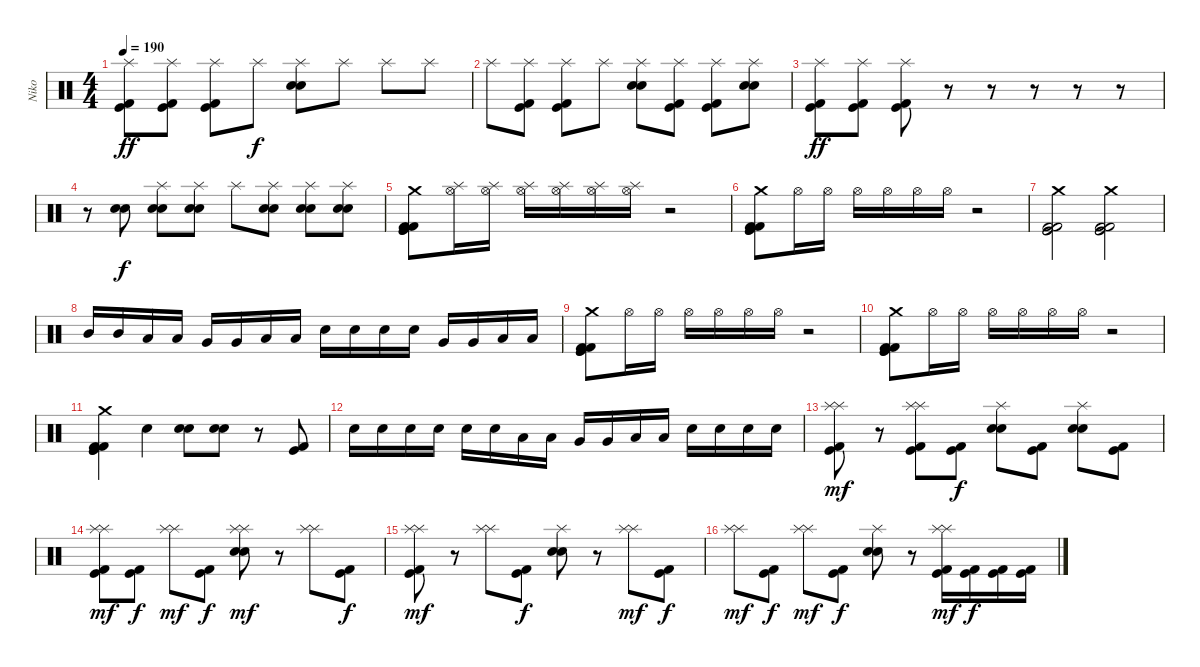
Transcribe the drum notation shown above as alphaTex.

\track ("Niko" "Niko") {instrument percussion}
\staff {score}
\articulation defaults
\ts (4 4)
\tempo 190
\clef neutral
\ks c
("Splash (hit)" "Kick (hit) 2" "Kick (hit)").8{dy ff} ("Splash (hit)" "Kick (hit)" "Kick (hit) 2").8 ("Splash (hit)" "Kick (hit)" "Kick (hit) 2").8 "Splash (hit)".8{dy f} ("Splash (hit)" "Electric Snare (hit)" "Electric Snare (hit)").8 "Splash (hit)".8 "Splash (hit)".8 "Splash (hit)".8 |
"Splash (hit)".8 ("Splash (hit)" "Kick (hit) 2" "Kick (hit)").8 ("Splash (hit)" "Kick (hit)" "Kick (hit) 2").8 "Splash (hit)".8 ("Splash (hit)" "Electric Snare (hit)" "Electric Snare (hit)").8 ("Splash (hit)" "Kick (hit) 2" "Kick (hit)").8 ("Splash (hit)" "Kick (hit) 2" "Kick (hit)").8 ("Splash (hit)" "Electric Snare (hit)" "Electric Snare (hit)").8 |
("Splash (hit)" "Kick (hit) 2" "Kick (hit)").8{dy ff} ("Splash (hit)" "Kick (hit)" "Kick (hit) 2").8 ("Splash (hit)" "Kick (hit)" "Kick (hit) 2").8 r.8 r.8 r.8 r.8 r.8 |
r.8 ("Electric Snare (hit)" "Electric Snare (hit)").8{dy f} ("Splash (hit)" "Electric Snare (hit)" "Electric Snare (hit)").8 ("Splash (hit)" "Electric Snare (hit)" "Electric Snare (hit)").8 "Splash (hit)".8 ("Splash (hit)" "Electric Snare (hit)" "Electric Snare (hit)").8 ("Splash (hit)" "Electric Snare (hit)" "Electric Snare (hit)").8 ("Splash (hit)" "Electric Snare (hit)" "Electric Snare (hit)").8 |
("Crash medium (hit)" "Kick (hit) 2" "Kick (hit)" "Kick (hit) 2" "Kick (hit)").8 ("Splash (hit)" "Hi-Hat (open)").16 ("Splash (hit)" "Hi-Hat (open)").16 ("Splash (hit)" "Hi-Hat (open)").16 ("Splash (hit)" "Hi-Hat (open)").16 ("Splash (hit)" "Hi-Hat (open)").16 ("Splash (hit)" "Hi-Hat (open)").16 r.2 |
("Crash medium (hit)" "Kick (hit) 2" "Kick (hit)" "Kick (hit) 2" "Kick (hit)").8 "Hi-Hat (open)".16 "Hi-Hat (open)".16 "Hi-Hat (open)".16 "Hi-Hat (open)".16 "Hi-Hat (open)".16 "Hi-Hat (open)".16 r.2 |
("Crash medium (hit)" "Kick (hit) 2" "Kick (hit)" "Kick (hit) 2" "Kick (hit)").2 ("Crash medium (hit)" "Kick (hit)" "Kick (hit) 2" "Kick (hit) 2" "Kick (hit)").2 |
"Mid Tom (hit)".16 "Mid Tom (hit)".16 "Low Tom (hit)".16 "Low Tom (hit)".16 "Very Low Tom (hit)".16 "Very Low Tom (hit)".16 "Low Floor Tom (hit)".16 "Low Floor Tom (hit)".16 "Electric Snare (hit)".16 "Electric Snare (hit)".16 "Electric Snare (hit)".16 "Electric Snare (hit)".16 "Very Low Tom (hit)".16 "Very Low Tom (hit)".16 "Low Floor Tom (hit)".16 "Low Floor Tom (hit)".16 |
("Crash medium (hit)" "Kick (hit) 2" "Kick (hit)" "Kick (hit) 2" "Kick (hit)").8 "Hi-Hat (open)".16 "Hi-Hat (open)".16 "Hi-Hat (open)".16 "Hi-Hat (open)".16 "Hi-Hat (open)".16 "Hi-Hat (open)".16 r.2 |
("Crash medium (hit)" "Kick (hit) 2" "Kick (hit)" "Kick (hit) 2" "Kick (hit)").8 "Hi-Hat (open)".16 "Hi-Hat (open)".16 "Hi-Hat (open)".16 "Hi-Hat (open)".16 "Hi-Hat (open)".16 "Hi-Hat (open)".16 r.2 |
("Crash medium (hit)" "Kick (hit) 2" "Kick (hit)" "Kick (hit) 2" "Kick (hit)").4 "Electric Snare (hit)".4 ("Electric Snare (hit)" "Electric Snare (hit)").8 ("Electric Snare (hit)" "Electric Snare (hit)").8 r.8 ("Kick (hit) 2" "Kick (hit)").8 |
"Electric Snare (hit)".16 "Electric Snare (hit)".16 "Electric Snare (hit)".16 "Electric Snare (hit)".16 "Electric Snare (hit)".16 "Electric Snare (hit)".16 "Low Tom (hit)".16 "Low Tom (hit)".16 "Very Low Tom (hit)".16 "Very Low Tom (hit)".16 "Low Floor Tom (hit)".16 "Low Floor Tom (hit)".16 "Electric Snare (hit)".16 "Electric Snare (hit)".16 "Electric Snare (hit)".16 "Electric Snare (hit)".16 |
("Splash (hit)" "Splash (hit)" "Kick (hit) 2" "Kick (hit)").8{dy mf} r.8 ("Splash (hit)" "Splash (hit)" "Kick (hit) 2" "Kick (hit)").8 ("Kick (hit)" "Kick (hit) 2").8{dy f} ("Splash (hit)" "Electric Snare (hit)" "Electric Snare (hit)").8 ("Kick (hit) 2" "Kick (hit)").8 ("Splash (hit)" "Electric Snare (hit)" "Electric Snare (hit)").8 ("Kick (hit) 2" "Kick (hit)").8 |
("Splash (hit)" "Splash (hit)" "Kick (hit) 2" "Kick (hit)").8{dy mf} ("Kick (hit)" "Kick (hit) 2").8{dy f} ("Splash (hit)" "Splash (hit)").8{dy mf} ("Kick (hit) 2" "Kick (hit)").8{dy f} ("Splash (hit)" "Splash (hit)" "Electric Snare (hit)" "Electric Snare (hit)").8{dy mf} r.8 ("Splash (hit)" "Splash (hit)").8 ("Kick (hit) 2" "Kick (hit)").8{dy f} |
("Splash (hit)" "Splash (hit)" "Kick (hit) 2" "Kick (hit)").8{dy mf} r.8 ("Splash (hit)" "Splash (hit)").8 ("Kick (hit) 2" "Kick (hit)").8{dy f} ("Splash (hit)" "Electric Snare (hit)" "Electric Snare (hit)").8 r.8 ("Splash (hit)" "Splash (hit)").8{dy mf} ("Kick (hit) 2" "Kick (hit)").8{dy f} |
("Splash (hit)" "Splash (hit)").8{dy mf} ("Kick (hit) 2" "Kick (hit)").8{dy f} ("Splash (hit)" "Splash (hit)").8{dy mf} ("Kick (hit) 2" "Kick (hit)").8{dy f} ("Splash (hit)" "Electric Snare (hit)" "Electric Snare (hit)").8 r.8 ("Splash (hit)" "Splash (hit)" "Kick (hit) 2" "Kick (hit)").16{dy mf} ("Kick (hit)" "Kick (hit) 2").16{dy f} ("Kick (hit) 2" "Kick (hit)").16 ("Kick (hit)" "Kick (hit) 2").16
